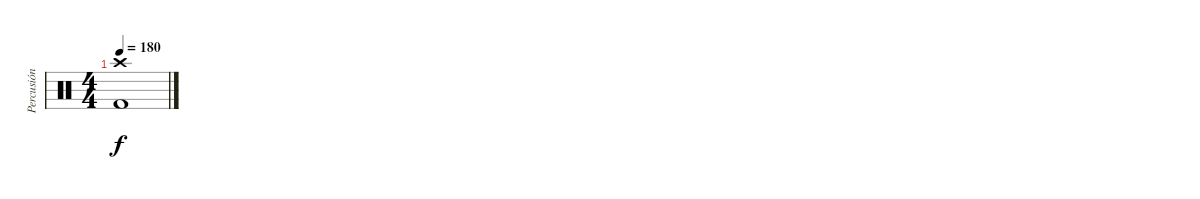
\track ("Percusión" "Percusión") {instrument percussion}
\staff {score}
\articulation defaults
\ts (4 4)
\tempo 180
\clef neutral
\ks c
("Crash high (hit)" "Kick (hit) 2").1{dy f}
